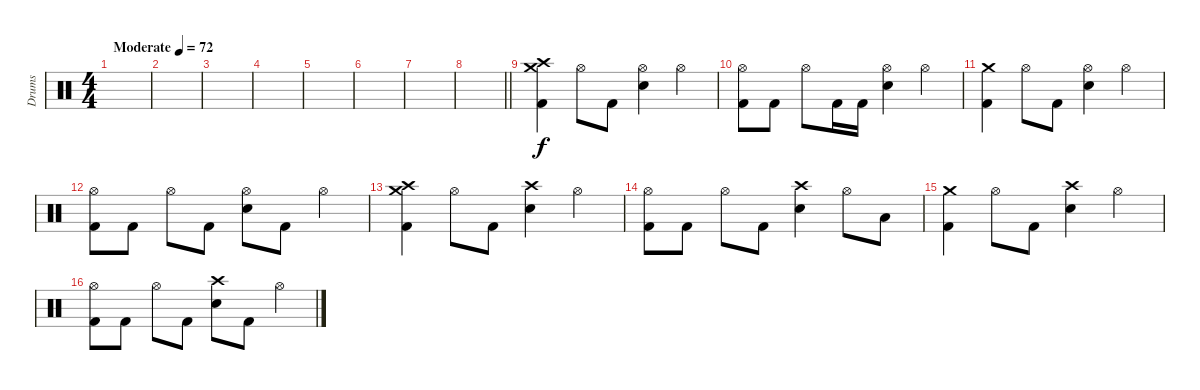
\track ("Drums" "Drums") {instrument percussion}
\staff {score}
\articulation defaults
\ts (4 4)
\tempo (72 "Moderate")
\clef neutral
\ks c
|
|
|
|
|
|
|
\barLineRight lightlight
|
("Crash medium (hit)" "Crash high (hit)" "Kick (hit) 2").4 "Hi-Hat (open)".8 "Kick (hit) 2".8 ("Hi-Hat (open)" "Snare (hit) 2").4 "Hi-Hat (open)".4 |
("Hi-Hat (open)" "Kick (hit) 2").8 "Kick (hit) 2".8 "Hi-Hat (open)".8 "Kick (hit) 2".16 "Kick (hit) 2".16 ("Hi-Hat (open)" "Snare (hit) 2").4 "Hi-Hat (open)".4 |
("Crash medium (hit)" "Kick (hit) 2").4 "Hi-Hat (open)".8 "Kick (hit) 2".8 ("Hi-Hat (open)" "Snare (hit) 2").4 "Hi-Hat (open)".4 |
("Hi-Hat (open)" "Kick (hit) 2").8 "Kick (hit) 2".8 "Hi-Hat (open)".8 "Kick (hit) 2".8 ("Hi-Hat (open)" "Snare (hit) 2").8 "Kick (hit) 2".8 "Hi-Hat (open)".4 |
("Crash medium (hit)" "Crash high (hit)" "Kick (hit) 2").4 "Hi-Hat (open)".8 "Kick (hit) 2".8 ("Crash high (hit)" "Snare (hit) 2").4 "Hi-Hat (open)".4 |
("Hi-Hat (open)" "Kick (hit) 2").8 "Kick (hit) 2".8 "Hi-Hat (open)".8 "Kick (hit) 2".8 ("Crash high (hit)" "Snare (hit) 2").4 "Hi-Hat (open)".8 "Low Tom (hit)".8 |
("Crash medium (hit)" "Kick (hit) 2").4 "Hi-Hat (open)".8 "Kick (hit) 2".8 ("Crash high (hit)" "Snare (hit) 2").4 "Hi-Hat (open)".4 |
("Hi-Hat (open)" "Kick (hit) 2").8 "Kick (hit) 2".8 "Hi-Hat (open)".8 "Kick (hit) 2".8 ("Crash high (hit)" "Snare (hit) 2").8 "Kick (hit) 2".8 "Hi-Hat (open)".4
